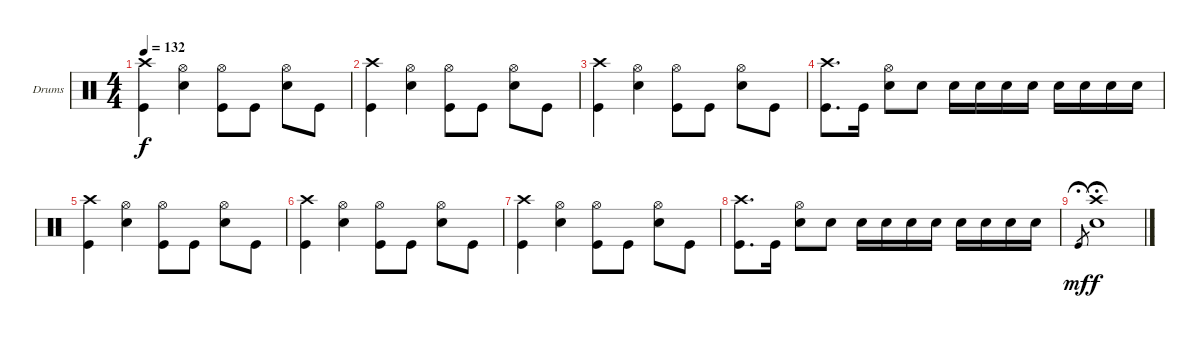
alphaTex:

\defaultSystemsLayout 4
\bracketExtendMode groupsimilarinstruments
\firstSystemTrackNameOrientation horizontal
\otherSystemsTrackNameOrientation horizontal
\track ("Drumkit" "Drums") {instrument percussion}
\staff {score}
\articulation defaults
\ts (4 4)
\tempo 132
\clef neutral
\ks c
("Crash high (hit)" "Kick (hit)").4{dy f} ("Hi-Hat (open)" "Snare (hit) 2").4 ("Hi-Hat (open)" "Kick (hit)").8 "Kick (hit)".8 ("Hi-Hat (open)" "Snare (hit) 2").8 "Kick (hit)".8 |
("Crash high (hit)" "Kick (hit)").4 ("Hi-Hat (open)" "Snare (hit) 2").4 ("Hi-Hat (open)" "Kick (hit)").8 "Kick (hit)".8 ("Hi-Hat (open)" "Snare (hit) 2").8 "Kick (hit)".8 |
("Crash high (hit)" "Kick (hit)").4 ("Hi-Hat (open)" "Snare (hit) 2").4 ("Hi-Hat (open)" "Kick (hit)").8 "Kick (hit)".8 ("Hi-Hat (open)" "Snare (hit) 2").8 "Kick (hit)".8 |
("Crash high (hit)" "Kick (hit)").8{d} "Kick (hit)".16 ("Hi-Hat (open)" "Snare (hit) 2").8 "Snare (hit) 2".8 "Snare (hit) 2".16 "Snare (hit) 2".16 "Snare (hit) 2".16 "Snare (hit) 2".16 "Snare (hit) 2".16 "Snare (hit) 2".16 "Snare (hit) 2".16 "Snare (hit) 2".16 |
("Crash high (hit)" "Kick (hit)").4 ("Hi-Hat (open)" "Snare (hit) 2").4 ("Hi-Hat (open)" "Kick (hit)").8 "Kick (hit)".8 ("Hi-Hat (open)" "Snare (hit) 2").8 "Kick (hit)".8 |
("Crash high (hit)" "Kick (hit)").4 ("Hi-Hat (open)" "Snare (hit) 2").4 ("Hi-Hat (open)" "Kick (hit)").8 "Kick (hit)".8 ("Hi-Hat (open)" "Snare (hit) 2").8 "Kick (hit)".8 |
("Crash high (hit)" "Kick (hit)").4 ("Hi-Hat (open)" "Snare (hit) 2").4 ("Hi-Hat (open)" "Kick (hit)").8 "Kick (hit)".8 ("Hi-Hat (open)" "Snare (hit) 2").8 "Kick (hit)".8 |
("Crash high (hit)" "Kick (hit)").8{d} "Kick (hit)".16 ("Hi-Hat (open)" "Snare (hit) 2").8 "Snare (hit) 2".8 "Snare (hit) 2".16 "Snare (hit) 2".16 "Snare (hit) 2".16 "Snare (hit) 2".16 "Snare (hit) 2".16 "Snare (hit) 2".16 "Snare (hit) 2".16 "Snare (hit) 2".16 |
"Kick (hit)".8{gr dy mf fermata (medium 0.54)} ("Crash high (hit)" "Snare (hit) 2").1{dy f fermata (medium 0.54)}
